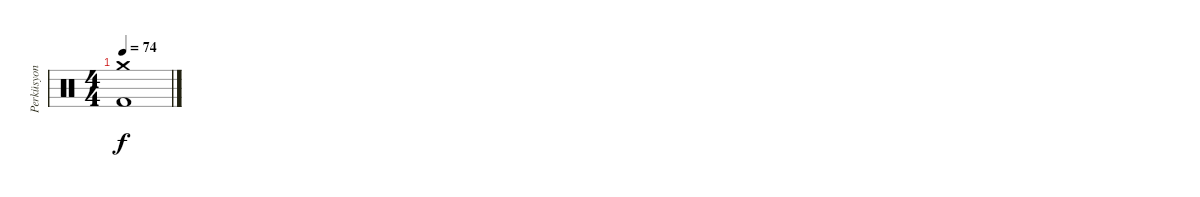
\track ("Perküsyon" "Perküsyon") {instrument percussion}
\staff {score}
\articulation defaults
\ts (4 4)
\tempo 74
\clef neutral
\ks c
("Crash medium (hit)" "Kick (hit) 2").1{dy f}
